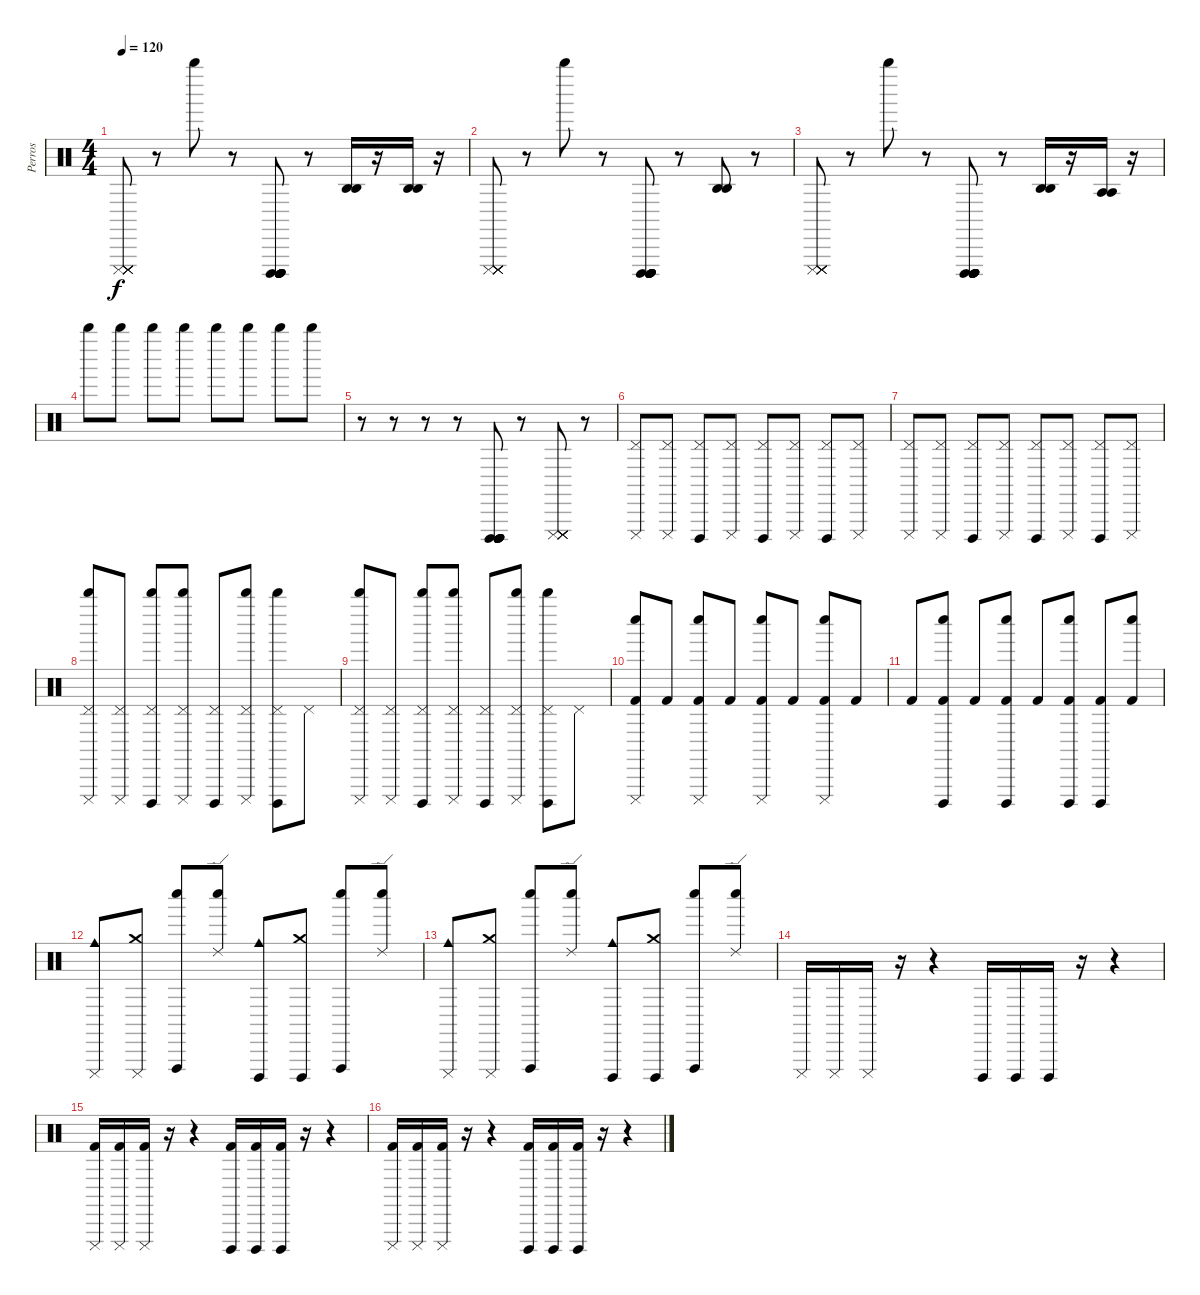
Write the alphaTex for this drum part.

\track ("Perros" "Perros") {instrument percussion}
\staff {score}
\articulation defaults
\ts (4 4)
\tempo 120
\clef neutral
\ks c
("Cuica (mute)" "Cuica (mute)" "Cuica (mute)" "Cuica (mute)" "Cuica (mute)" "Cuica (mute)").8{dy f} r.8 "Whistle high (hit)".8 r.8 ("Cuica (open)" "Cuica (open)" "Cuica (open)" "Cuica (open)" "Cuica (open)" "Cuica (open)").8 r.8 ("Agogo high (hit)" "Agogo high (hit)").16 r.16 ("Agogo high (hit)" "Agogo high (hit)").16 r.16 |
("Cuica (mute)" "Cuica (mute)" "Cuica (mute)" "Cuica (mute)" "Cuica (mute)" "Cuica (mute)").8 r.8 "Whistle high (hit)".8 r.8 ("Cuica (open)" "Cuica (open)" "Cuica (open)" "Cuica (open)" "Cuica (open)" "Cuica (open)").8 r.8 ("Agogo high (hit)" "Agogo high (hit)").8 r.8 |
("Cuica (mute)" "Cuica (mute)" "Cuica (mute)" "Cuica (mute)" "Cuica (mute)" "Cuica (mute)").8 r.8 "Whistle high (hit)".8 r.8 ("Cuica (open)" "Cuica (open)" "Cuica (open)" "Cuica (open)" "Cuica (open)" "Cuica (open)").8 r.8 ("Agogo high (hit)" "Agogo high (hit)").16 r.16 ("Agogo tow (hit)" "Agogo tow (hit)").16 r.16 |
"Whistle high (hit)".8 "Whistle high (hit)".8 "Whistle high (hit)".8 "Whistle high (hit)".8 "Whistle high (hit)".8 "Whistle high (hit)".8 "Whistle high (hit)".8 "Whistle high (hit)".8 |
r.8 r.8 r.8 r.8 ("Cuica (open)" "Cuica (open)" "Cuica (open)" "Cuica (open)" "Cuica (open)" "Cuica (open)").8 r.8 ("Cuica (mute)" "Cuica (mute)" "Cuica (mute)" "Cuica (mute)" "Cuica (mute)" "Cuica (mute)").8 r.8 |
("Pedal Hi-Hat (hit)" "Cuica (mute)").8 ("Pedal Hi-Hat (hit)" "Cuica (mute)").8 ("Pedal Hi-Hat (hit)" "Cuica (open)").8 ("Pedal Hi-Hat (hit)" "Cuica (mute)").8 ("Pedal Hi-Hat (hit)" "Cuica (open)").8 ("Pedal Hi-Hat (hit)" "Cuica (mute)").8 ("Pedal Hi-Hat (hit)" "Cuica (open)").8 ("Pedal Hi-Hat (hit)" "Cuica (mute)").8 |
("Pedal Hi-Hat (hit)" "Cuica (mute)").8 ("Pedal Hi-Hat (hit)" "Cuica (mute)").8 ("Pedal Hi-Hat (hit)" "Cuica (open)").8 ("Pedal Hi-Hat (hit)" "Cuica (mute)").8 ("Pedal Hi-Hat (hit)" "Cuica (open)").8 ("Pedal Hi-Hat (hit)" "Cuica (mute)").8 ("Pedal Hi-Hat (hit)" "Cuica (open)").8 ("Pedal Hi-Hat (hit)" "Cuica (mute)").8 |
("Pedal Hi-Hat (hit)" "Whistle high (hit)" "Cuica (mute)").8 ("Pedal Hi-Hat (hit)" "Cuica (mute)").8 ("Pedal Hi-Hat (hit)" "Whistle high (hit)" "Cuica (open)").8 ("Pedal Hi-Hat (hit)" "Whistle high (hit)" "Cuica (mute)").8 ("Pedal Hi-Hat (hit)" "Cuica (open)").8 ("Pedal Hi-Hat (hit)" "Whistle high (hit)" "Cuica (mute)").8 ("Pedal Hi-Hat (hit)" "Whistle high (hit)" "Cuica (open)").8 "Pedal Hi-Hat (hit)".8 |
("Pedal Hi-Hat (hit)" "Whistle high (hit)" "Cuica (mute)").8 ("Pedal Hi-Hat (hit)" "Cuica (mute)").8 ("Pedal Hi-Hat (hit)" "Whistle high (hit)" "Cuica (open)").8 ("Pedal Hi-Hat (hit)" "Whistle high (hit)" "Cuica (mute)").8 ("Pedal Hi-Hat (hit)" "Cuica (open)").8 ("Pedal Hi-Hat (hit)" "Whistle high (hit)" "Cuica (mute)").8 ("Pedal Hi-Hat (hit)" "Whistle high (hit)" "Cuica (open)").8 "Pedal Hi-Hat (hit)".8 |
("Cuica (mute)" "Whistle low (hit)" "Kick (hit) 2").8 "Kick (hit) 2".8 ("Cuica (mute)" "Whistle low (hit)" "Kick (hit) 2").8 "Kick (hit) 2".8 ("Cuica (mute)" "Whistle low (hit)" "Kick (hit) 2").8 "Kick (hit) 2".8 ("Cuica (mute)" "Whistle low (hit)" "Kick (hit) 2").8 "Kick (hit) 2".8 |
"Kick (hit) 2".8 ("Cuica (open)" "Whistle low (hit)" "Kick (hit) 2").8 "Kick (hit) 2".8 ("Cuica (open)" "Whistle low (hit)" "Kick (hit) 2").8 "Kick (hit) 2".8 ("Cuica (open)" "Whistle low (hit)" "Kick (hit) 2").8 ("Cuica (open)" "Kick (hit) 2").8 ("Whistle low (hit)" "Kick (hit) 2").8 |
("Cuica (mute)" "Cowbell medium (hit)").8 ("Cuica (mute)" "Crash medium (hit)").8 ("Whistle low (hit)" "Vibraslap (hit)").8 ("Whistle low (hit)" "Ride (edge) 2").8 ("Cuica (open)" "Cowbell medium (hit)").8 ("Cuica (open)" "Crash medium (hit)").8 ("Whistle low (hit)" "Vibraslap (hit)").8 ("Whistle low (hit)" "Ride (edge) 2").8 |
("Cuica (mute)" "Cowbell medium (hit)").8 ("Cuica (mute)" "Crash medium (hit)").8 ("Whistle low (hit)" "Vibraslap (hit)").8 ("Whistle low (hit)" "Ride (edge) 2").8 ("Cuica (open)" "Cowbell medium (hit)").8 ("Cuica (open)" "Crash medium (hit)").8 ("Whistle low (hit)" "Vibraslap (hit)").8 ("Whistle low (hit)" "Ride (edge) 2").8 |
"Cuica (mute)".16 "Cuica (mute)".16 "Cuica (mute)".16 r.16 r.4 "Cuica (open)".16 "Cuica (open)".16 "Cuica (open)".16 r.16 r.4 |
("Cuica (mute)" "Kick (hit) 2").16 ("Cuica (mute)" "Kick (hit) 2").16 ("Cuica (mute)" "Kick (hit) 2").16 r.16 r.4 ("Cuica (open)" "Kick (hit) 2").16 ("Cuica (open)" "Kick (hit) 2").16 ("Cuica (open)" "Kick (hit) 2").16 r.16 r.4 |
("Cuica (mute)" "Kick (hit) 2").16 ("Cuica (mute)" "Kick (hit) 2").16 ("Cuica (mute)" "Kick (hit) 2").16 r.16 r.4 ("Cuica (open)" "Kick (hit) 2").16 ("Cuica (open)" "Kick (hit) 2").16 ("Cuica (open)" "Kick (hit) 2").16 r.16 r.4
